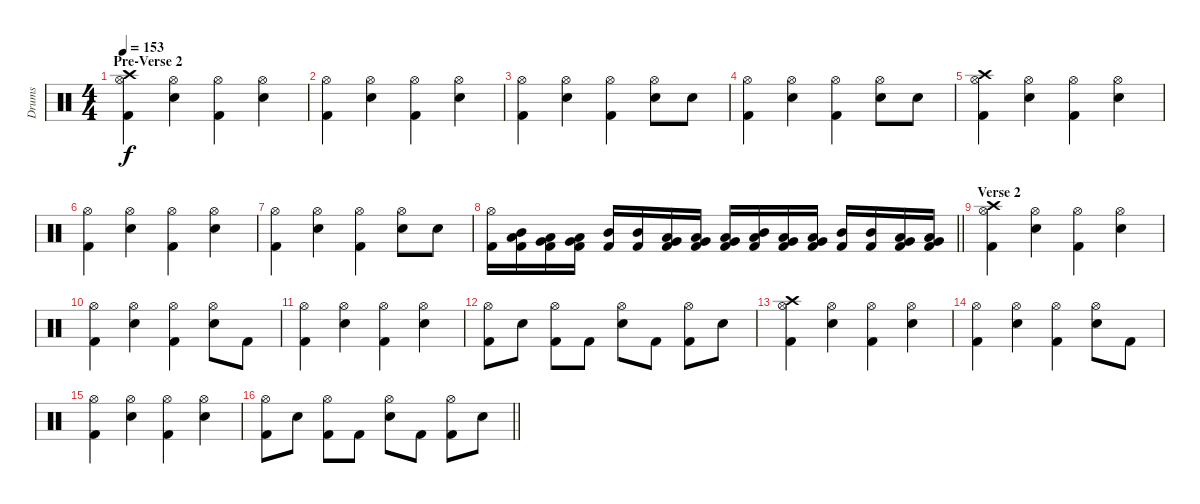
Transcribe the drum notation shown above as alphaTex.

\track ("Drums" "Drums") {instrument percussion}
\staff {score}
\articulation defaults
\ts (4 4)
\section ("" "Pre-Verse 2")
\tempo 153
\clef neutral
\ks c
("Crash high (hit)" "Hi-Hat (open)" "Kick (hit) 2").4{dy f} ("Hi-Hat (open)" "Electric Snare (hit)").4 ("Hi-Hat (open)" "Kick (hit) 2").4 ("Hi-Hat (open)" "Electric Snare (hit)").4 |
("Hi-Hat (open)" "Kick (hit) 2").4 ("Hi-Hat (open)" "Electric Snare (hit)").4 ("Hi-Hat (open)" "Kick (hit) 2").4 ("Hi-Hat (open)" "Electric Snare (hit)").4 |
("Hi-Hat (open)" "Kick (hit) 2").4 ("Hi-Hat (open)" "Electric Snare (hit)").4 ("Hi-Hat (open)" "Kick (hit) 2").4 ("Hi-Hat (open)" "Electric Snare (hit)").8 "Electric Snare (hit)".8 |
("Hi-Hat (open)" "Kick (hit) 2").4 ("Hi-Hat (open)" "Electric Snare (hit)").4 ("Hi-Hat (open)" "Kick (hit) 2").4 ("Hi-Hat (open)" "Electric Snare (hit)").8 "Electric Snare (hit)".8 |
("Crash high (hit)" "Hi-Hat (open)" "Kick (hit) 2").4 ("Hi-Hat (open)" "Electric Snare (hit)").4 ("Hi-Hat (open)" "Kick (hit) 2").4 ("Hi-Hat (open)" "Electric Snare (hit)").4 |
("Hi-Hat (open)" "Kick (hit) 2").4 ("Hi-Hat (open)" "Electric Snare (hit)").4 ("Hi-Hat (open)" "Kick (hit) 2").4 ("Hi-Hat (open)" "Electric Snare (hit)").4 |
("Hi-Hat (open)" "Kick (hit) 2").4 ("Hi-Hat (open)" "Electric Snare (hit)").4 ("Hi-Hat (open)" "Kick (hit) 2").4 ("Hi-Hat (open)" "Electric Snare (hit)").8 "Electric Snare (hit)".8 |
\barLineRight lightlight
("Hi-Hat (open)" "Kick (hit) 2").16 ("Low Tom (hit)" "Mid Tom (hit)" "Kick (hit) 2").16 ("Very Low Tom (hit)" "Low Tom (hit)" "Kick (hit) 2").16 ("Low Floor Tom (hit)" "Very Low Tom (hit)" "Kick (hit) 2").16 ("Mid Tom (hit)" "Kick (hit) 2").16 ("Mid Tom (hit)" "Kick (hit) 2").16 ("Very Low Tom (hit)" "Low Tom (hit)" "Kick (hit) 2").16 ("Very Low Tom (hit)" "Low Tom (hit)" "Kick (hit) 2").16 ("Low Floor Tom (hit)" "Very Low Tom (hit)" "Kick (hit) 2").16 ("Low Tom (hit)" "Mid Tom (hit)" "Kick (hit) 2").16 ("Very Low Tom (hit)" "Low Tom (hit)" "Kick (hit) 2").16 ("Low Floor Tom (hit)" "Very Low Tom (hit)" "Kick (hit) 2").16 ("Mid Tom (hit)" "Kick (hit) 2").16 ("Mid Tom (hit)" "Kick (hit) 2").16 ("Very Low Tom (hit)" "Low Tom (hit)" "Kick (hit) 2").16 ("Very Low Tom (hit)" "Low Tom (hit)" "Kick (hit) 2").16 |
\section ("" "Verse 2")
("Crash high (hit)" "Hi-Hat (open)" "Kick (hit) 2").4 ("Hi-Hat (open)" "Electric Snare (hit)").4 ("Hi-Hat (open)" "Kick (hit) 2").4 ("Hi-Hat (open)" "Electric Snare (hit)").4 |
("Hi-Hat (open)" "Kick (hit) 2").4 ("Hi-Hat (open)" "Electric Snare (hit)").4 ("Hi-Hat (open)" "Kick (hit) 2").4 ("Hi-Hat (open)" "Electric Snare (hit)").8 "Kick (hit) 2".8 |
("Hi-Hat (open)" "Kick (hit) 2").4 ("Hi-Hat (open)" "Electric Snare (hit)").4 ("Hi-Hat (open)" "Kick (hit) 2").4 ("Hi-Hat (open)" "Electric Snare (hit)").4 |
("Hi-Hat (open)" "Kick (hit) 2").8 "Electric Snare (hit)".8 ("Hi-Hat (open)" "Kick (hit) 2").8 "Kick (hit) 2".8 ("Hi-Hat (open)" "Electric Snare (hit)").8 "Kick (hit) 2".8 ("Hi-Hat (open)" "Kick (hit) 2").8 "Electric Snare (hit)".8 |
("Crash high (hit)" "Hi-Hat (open)" "Kick (hit) 2").4 ("Hi-Hat (open)" "Electric Snare (hit)").4 ("Hi-Hat (open)" "Kick (hit) 2").4 ("Hi-Hat (open)" "Electric Snare (hit)").4 |
("Hi-Hat (open)" "Kick (hit) 2").4 ("Hi-Hat (open)" "Electric Snare (hit)").4 ("Hi-Hat (open)" "Kick (hit) 2").4 ("Hi-Hat (open)" "Electric Snare (hit)").8 "Kick (hit) 2".8 |
("Hi-Hat (open)" "Kick (hit) 2").4 ("Hi-Hat (open)" "Electric Snare (hit)").4 ("Hi-Hat (open)" "Kick (hit) 2").4 ("Hi-Hat (open)" "Electric Snare (hit)").4 |
\barLineRight lightlight
("Hi-Hat (open)" "Kick (hit) 2").8 "Electric Snare (hit)".8 ("Hi-Hat (open)" "Kick (hit) 2").8 "Kick (hit) 2".8 ("Hi-Hat (open)" "Electric Snare (hit)").8 "Kick (hit) 2".8 ("Hi-Hat (open)" "Kick (hit) 2").8 "Electric Snare (hit)".8
